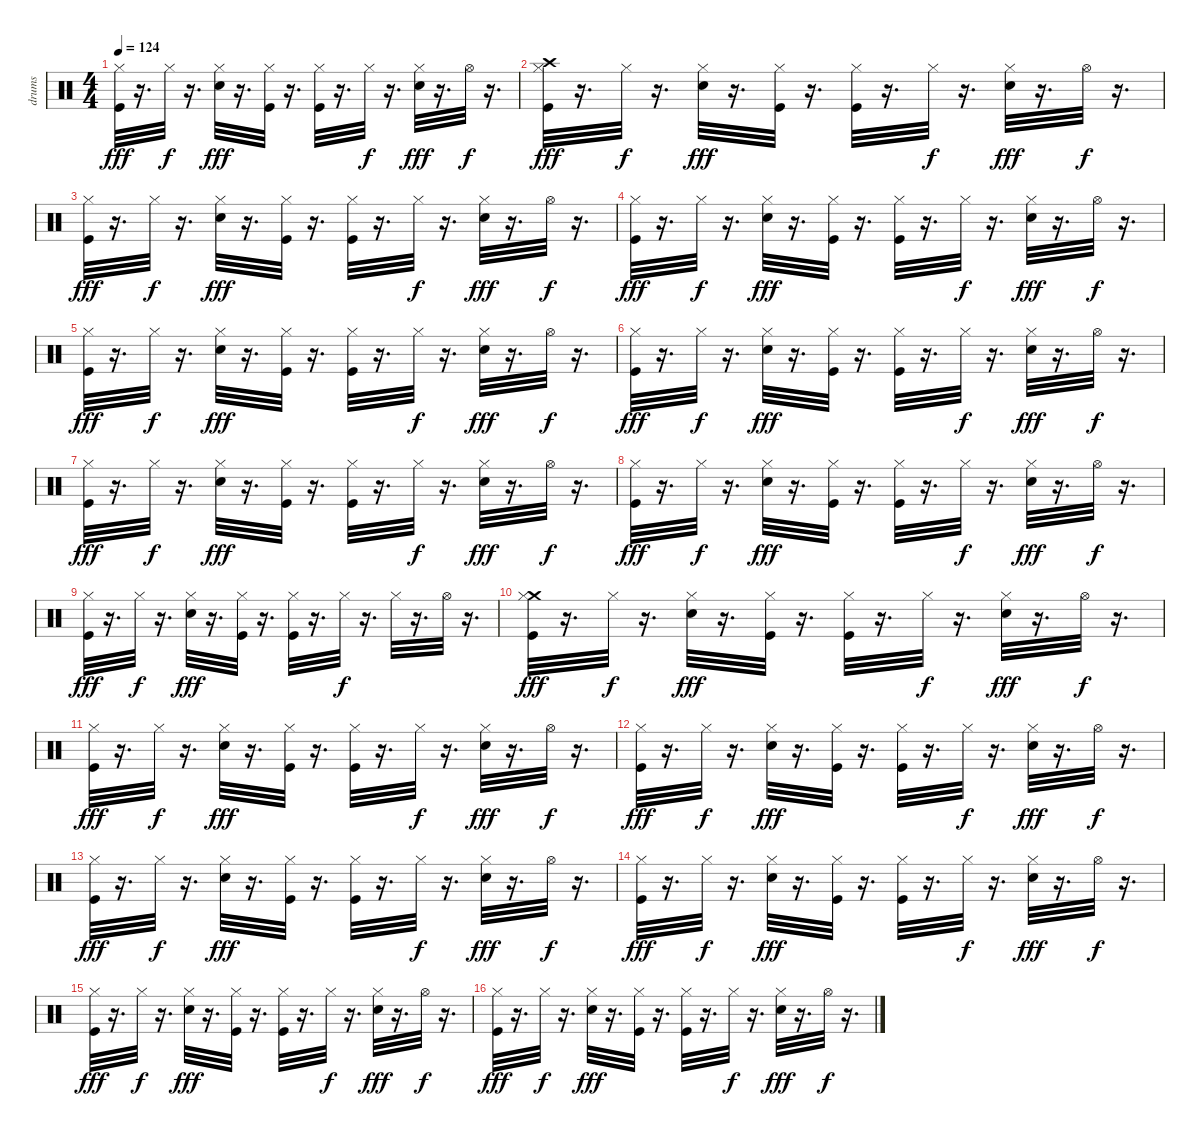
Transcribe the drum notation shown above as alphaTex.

\track ("drums" "drums") {instrument percussion}
\staff {score}
\articulation defaults
\ts (4 4)
\tempo 124
\clef neutral
\ks c
("Kick (hit)" "Hi-Hat (closed)").32{dy fff} r.16{d} "Hi-Hat (closed)".32{dy f} r.16{d} ("Electric Snare (hit)" "Hi-Hat (closed)").32{dy fff} r.16{d} ("Kick (hit)" "Hi-Hat (closed)").32 r.16{d} ("Kick (hit)" "Hi-Hat (closed)").32 r.16{d} "Hi-Hat (closed)".32{dy f} r.16{d} ("Electric Snare (hit)" "Hi-Hat (closed)").32{dy fff} r.16{d} "Hi-Hat (open)".32{dy f} r.16{d} |
("Crash high (hit)" "Kick (hit)" "Hi-Hat (closed)").32{dy fff} r.16{d} "Hi-Hat (closed)".32{dy f} r.16{d} ("Electric Snare (hit)" "Hi-Hat (closed)").32{dy fff} r.16{d} ("Kick (hit)" "Hi-Hat (closed)").32 r.16{d} ("Kick (hit)" "Hi-Hat (closed)").32 r.16{d} "Hi-Hat (closed)".32{dy f} r.16{d} ("Electric Snare (hit)" "Hi-Hat (closed)").32{dy fff} r.16{d} "Hi-Hat (open)".32{dy f} r.16{d} |
("Kick (hit)" "Hi-Hat (closed)").32{dy fff} r.16{d} "Hi-Hat (closed)".32{dy f} r.16{d} ("Electric Snare (hit)" "Hi-Hat (closed)").32{dy fff} r.16{d} ("Kick (hit)" "Hi-Hat (closed)").32 r.16{d} ("Kick (hit)" "Hi-Hat (closed)").32 r.16{d} "Hi-Hat (closed)".32{dy f} r.16{d} ("Electric Snare (hit)" "Hi-Hat (closed)").32{dy fff} r.16{d} "Hi-Hat (open)".32{dy f} r.16{d} |
("Kick (hit)" "Hi-Hat (closed)").32{dy fff} r.16{d} "Hi-Hat (closed)".32{dy f} r.16{d} ("Electric Snare (hit)" "Hi-Hat (closed)").32{dy fff} r.16{d} ("Kick (hit)" "Hi-Hat (closed)").32 r.16{d} ("Kick (hit)" "Hi-Hat (closed)").32 r.16{d} "Hi-Hat (closed)".32{dy f} r.16{d} ("Electric Snare (hit)" "Hi-Hat (closed)").32{dy fff} r.16{d} "Hi-Hat (open)".32{dy f} r.16{d} |
("Kick (hit)" "Hi-Hat (closed)").32{dy fff} r.16{d} "Hi-Hat (closed)".32{dy f} r.16{d} ("Electric Snare (hit)" "Hi-Hat (closed)").32{dy fff} r.16{d} ("Kick (hit)" "Hi-Hat (closed)").32 r.16{d} ("Kick (hit)" "Hi-Hat (closed)").32 r.16{d} "Hi-Hat (closed)".32{dy f} r.16{d} ("Electric Snare (hit)" "Hi-Hat (closed)").32{dy fff} r.16{d} "Hi-Hat (open)".32{dy f} r.16{d} |
("Kick (hit)" "Hi-Hat (closed)").32{dy fff} r.16{d} "Hi-Hat (closed)".32{dy f} r.16{d} ("Electric Snare (hit)" "Hi-Hat (closed)").32{dy fff} r.16{d} ("Kick (hit)" "Hi-Hat (closed)").32 r.16{d} ("Kick (hit)" "Hi-Hat (closed)").32 r.16{d} "Hi-Hat (closed)".32{dy f} r.16{d} ("Electric Snare (hit)" "Hi-Hat (closed)").32{dy fff} r.16{d} "Hi-Hat (open)".32{dy f} r.16{d} |
("Kick (hit)" "Hi-Hat (closed)").32{dy fff} r.16{d} "Hi-Hat (closed)".32{dy f} r.16{d} ("Electric Snare (hit)" "Hi-Hat (closed)").32{dy fff} r.16{d} ("Kick (hit)" "Hi-Hat (closed)").32 r.16{d} ("Kick (hit)" "Hi-Hat (closed)").32 r.16{d} "Hi-Hat (closed)".32{dy f} r.16{d} ("Electric Snare (hit)" "Hi-Hat (closed)").32{dy fff} r.16{d} "Hi-Hat (open)".32{dy f} r.16{d} |
("Kick (hit)" "Hi-Hat (closed)").32{dy fff} r.16{d} "Hi-Hat (closed)".32{dy f} r.16{d} ("Electric Snare (hit)" "Hi-Hat (closed)").32{dy fff} r.16{d} ("Kick (hit)" "Hi-Hat (closed)").32 r.16{d} ("Kick (hit)" "Hi-Hat (closed)").32 r.16{d} "Hi-Hat (closed)".32{dy f} r.16{d} ("Electric Snare (hit)" "Hi-Hat (closed)").32{dy fff} r.16{d} "Hi-Hat (open)".32{dy f} r.16{d} |
("Kick (hit)" "Hi-Hat (closed)").32{dy fff} r.16{d} "Hi-Hat (closed)".32{dy f} r.16{d} ("Electric Snare (hit)" "Hi-Hat (closed)").32{dy fff} r.16{d} ("Kick (hit)" "Hi-Hat (closed)").32 r.16{d} ("Kick (hit)" "Hi-Hat (closed)").32 r.16{d} "Hi-Hat (closed)".32{dy f} r.16{d} "Hi-Hat (closed)".32 r.16{d} "Hi-Hat (open)".32 r.16{d} |
("Crash medium (hit)" "Hi-Hat (closed)" "Kick (hit)").32{dy fff} r.16{d} "Hi-Hat (closed)".32{dy f} r.16{d} ("Electric Snare (hit)" "Hi-Hat (closed)").32{dy fff} r.16{d} ("Kick (hit)" "Hi-Hat (closed)").32 r.16{d} ("Kick (hit)" "Hi-Hat (closed)").32 r.16{d} "Hi-Hat (closed)".32{dy f} r.16{d} ("Electric Snare (hit)" "Hi-Hat (closed)").32{dy fff} r.16{d} "Hi-Hat (open)".32{dy f} r.16{d} |
("Hi-Hat (closed)" "Kick (hit)").32{dy fff} r.16{d} "Hi-Hat (closed)".32{dy f} r.16{d} ("Hi-Hat (closed)" "Electric Snare (hit)").32{dy fff} r.16{d} ("Hi-Hat (closed)" "Kick (hit)").32 r.16{d} ("Hi-Hat (closed)" "Kick (hit)").32 r.16{d} "Hi-Hat (closed)".32{dy f} r.16{d} ("Hi-Hat (closed)" "Electric Snare (hit)").32{dy fff} r.16{d} "Hi-Hat (open)".32{dy f} r.16{d} |
("Kick (hit)" "Hi-Hat (closed)").32{dy fff} r.16{d} "Hi-Hat (closed)".32{dy f} r.16{d} ("Electric Snare (hit)" "Hi-Hat (closed)").32{dy fff} r.16{d} ("Kick (hit)" "Hi-Hat (closed)").32 r.16{d} ("Kick (hit)" "Hi-Hat (closed)").32 r.16{d} "Hi-Hat (closed)".32{dy f} r.16{d} ("Electric Snare (hit)" "Hi-Hat (closed)").32{dy fff} r.16{d} "Hi-Hat (open)".32{dy f} r.16{d} |
("Hi-Hat (closed)" "Kick (hit)").32{dy fff} r.16{d} "Hi-Hat (closed)".32{dy f} r.16{d} ("Hi-Hat (closed)" "Electric Snare (hit)").32{dy fff} r.16{d} ("Hi-Hat (closed)" "Kick (hit)").32 r.16{d} ("Hi-Hat (closed)" "Kick (hit)").32 r.16{d} "Hi-Hat (closed)".32{dy f} r.16{d} ("Hi-Hat (closed)" "Electric Snare (hit)").32{dy fff} r.16{d} "Hi-Hat (open)".32{dy f} r.16{d} |
("Kick (hit)" "Hi-Hat (closed)").32{dy fff} r.16{d} "Hi-Hat (closed)".32{dy f} r.16{d} ("Electric Snare (hit)" "Hi-Hat (closed)").32{dy fff} r.16{d} ("Kick (hit)" "Hi-Hat (closed)").32 r.16{d} ("Kick (hit)" "Hi-Hat (closed)").32 r.16{d} "Hi-Hat (closed)".32{dy f} r.16{d} ("Electric Snare (hit)" "Hi-Hat (closed)").32{dy fff} r.16{d} "Hi-Hat (open)".32{dy f} r.16{d} |
("Hi-Hat (closed)" "Kick (hit)").32{dy fff} r.16{d} "Hi-Hat (closed)".32{dy f} r.16{d} ("Hi-Hat (closed)" "Electric Snare (hit)").32{dy fff} r.16{d} ("Hi-Hat (closed)" "Kick (hit)").32 r.16{d} ("Hi-Hat (closed)" "Kick (hit)").32 r.16{d} "Hi-Hat (closed)".32{dy f} r.16{d} ("Hi-Hat (closed)" "Electric Snare (hit)").32{dy fff} r.16{d} "Hi-Hat (open)".32{dy f} r.16{d} |
("Kick (hit)" "Hi-Hat (closed)").32{dy fff} r.16{d} "Hi-Hat (closed)".32{dy f} r.16{d} ("Electric Snare (hit)" "Hi-Hat (closed)").32{dy fff} r.16{d} ("Kick (hit)" "Hi-Hat (closed)").32 r.16{d} ("Kick (hit)" "Hi-Hat (closed)").32 r.16{d} "Hi-Hat (closed)".32{dy f} r.16{d} ("Electric Snare (hit)" "Hi-Hat (closed)").32{dy fff} r.16{d} "Hi-Hat (open)".32{dy f} r.16{d}
